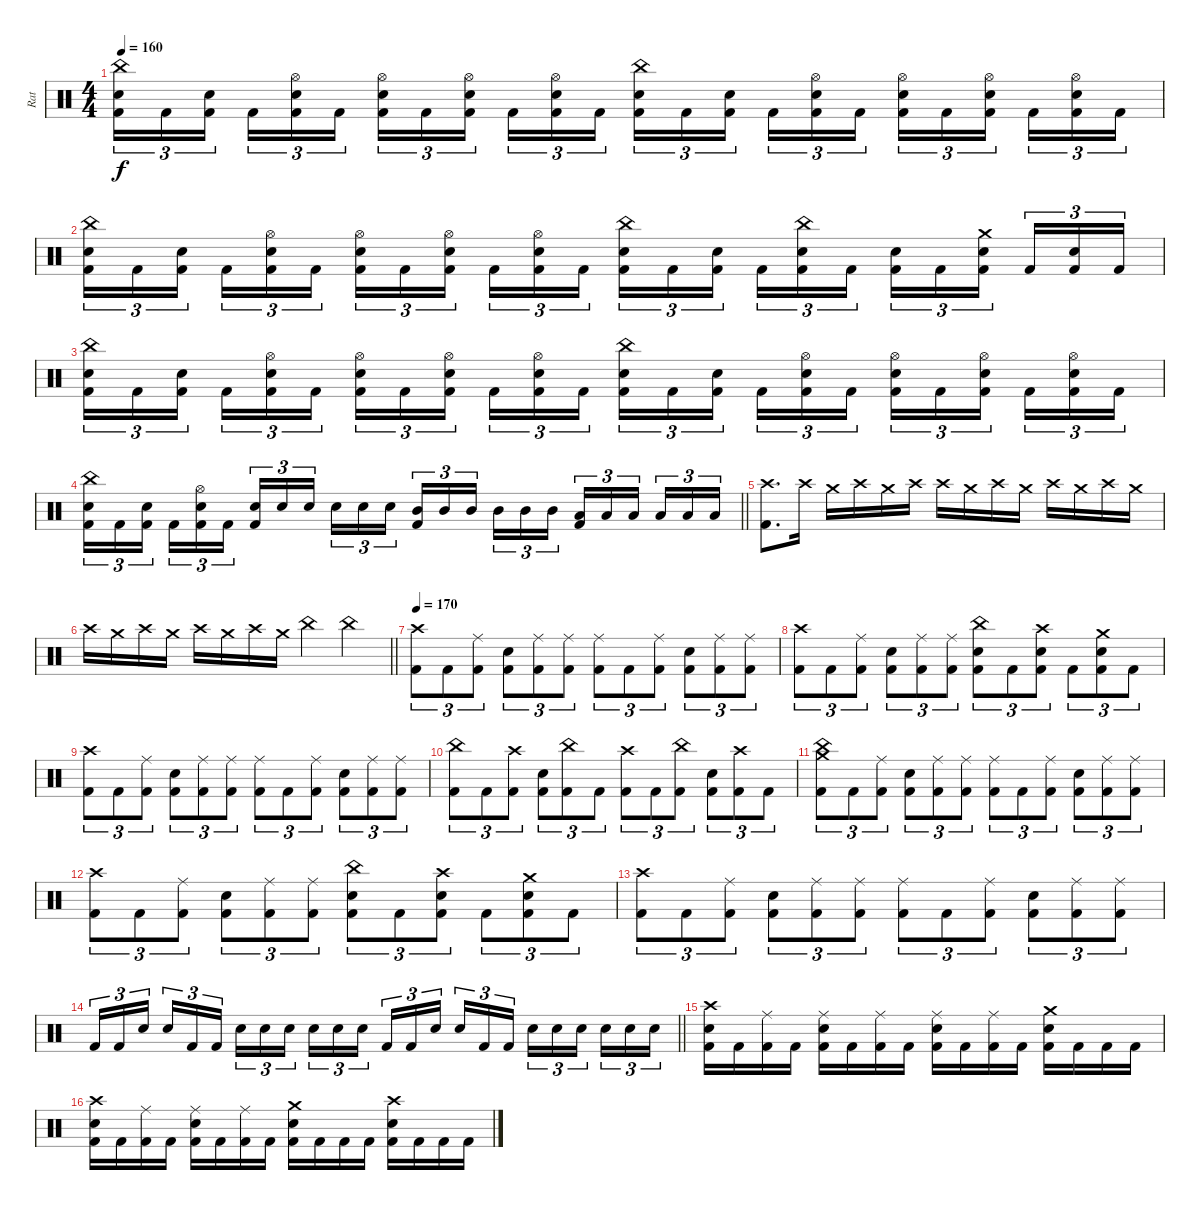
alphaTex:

\track ("Rat" "Rat") {instrument percussion}
\staff {score}
\articulation defaults
\ts (4 4)
\tempo 160
\clef neutral
\ks c
("China (hit)" "Electric Snare (hit)" "Kick (hit) 2").16{tu (3 2) dy f} "Kick (hit) 2".16{tu (3 2)} ("Electric Snare (hit)" "Kick (hit) 2").16{tu (3 2) beam splitsecondary} "Kick (hit) 2".16{tu (3 2)} ("Hi-Hat (open)" "Electric Snare (hit)" "Kick (hit) 2").16{tu (3 2)} "Kick (hit) 2".16{tu (3 2)} ("Hi-Hat (open)" "Electric Snare (hit)" "Kick (hit) 2").16{tu (3 2)} "Kick (hit) 2".16{tu (3 2)} ("Hi-Hat (open)" "Electric Snare (hit)" "Kick (hit) 2").16{tu (3 2) beam splitsecondary} "Kick (hit) 2".16{tu (3 2)} ("Hi-Hat (open)" "Electric Snare (hit)" "Kick (hit) 2").16{tu (3 2)} "Kick (hit) 2".16{tu (3 2)} ("China (hit)" "Electric Snare (hit)" "Kick (hit) 2").16{tu (3 2)} "Kick (hit) 2".16{tu (3 2)} ("Electric Snare (hit)" "Kick (hit) 2").16{tu (3 2) beam splitsecondary} "Kick (hit) 2".16{tu (3 2)} ("Hi-Hat (open)" "Electric Snare (hit)" "Kick (hit) 2").16{tu (3 2)} "Kick (hit) 2".16{tu (3 2)} ("Hi-Hat (open)" "Electric Snare (hit)" "Kick (hit) 2").16{tu (3 2)} "Kick (hit) 2".16{tu (3 2)} ("Hi-Hat (open)" "Electric Snare (hit)" "Kick (hit) 2").16{tu (3 2) beam splitsecondary} "Kick (hit) 2".16{tu (3 2)} ("Hi-Hat (open)" "Electric Snare (hit)" "Kick (hit) 2").16{tu (3 2)} "Kick (hit) 2".16{tu (3 2)} |
("China (hit)" "Electric Snare (hit)" "Kick (hit) 2").16{tu (3 2)} "Kick (hit) 2".16{tu (3 2)} ("Electric Snare (hit)" "Kick (hit) 2").16{tu (3 2) beam splitsecondary} "Kick (hit) 2".16{tu (3 2)} ("Hi-Hat (open)" "Electric Snare (hit)" "Kick (hit) 2").16{tu (3 2)} "Kick (hit) 2".16{tu (3 2)} ("Hi-Hat (open)" "Electric Snare (hit)" "Kick (hit) 2").16{tu (3 2)} "Kick (hit) 2".16{tu (3 2)} ("Hi-Hat (open)" "Electric Snare (hit)" "Kick (hit) 2").16{tu (3 2) beam splitsecondary} "Kick (hit) 2".16{tu (3 2)} ("Hi-Hat (open)" "Electric Snare (hit)" "Kick (hit) 2").16{tu (3 2)} "Kick (hit) 2".16{tu (3 2)} ("China (hit)" "Electric Snare (hit)" "Kick (hit) 2").16{tu (3 2)} "Kick (hit) 2".16{tu (3 2)} ("Electric Snare (hit)" "Kick (hit) 2").16{tu (3 2) beam splitsecondary} "Kick (hit) 2".16{tu (3 2)} ("China (hit)" "Electric Snare (hit)" "Kick (hit) 2").16{tu (3 2)} "Kick (hit) 2".16{tu (3 2)} ("Electric Snare (hit)" "Kick (hit) 2").16{tu (3 2)} "Kick (hit) 2".16{tu (3 2)} ("Crash medium (hit)" "Electric Snare (hit)" "Kick (hit) 2").16{tu (3 2) beam splitsecondary} "Kick (hit) 2".16{tu (3 2)} ("Electric Snare (hit)" "Kick (hit) 2").16{tu (3 2)} "Kick (hit) 2".16{tu (3 2)} |
("China (hit)" "Electric Snare (hit)" "Kick (hit) 2").16{tu (3 2)} "Kick (hit) 2".16{tu (3 2)} ("Electric Snare (hit)" "Kick (hit) 2").16{tu (3 2) beam splitsecondary} "Kick (hit) 2".16{tu (3 2)} ("Hi-Hat (open)" "Electric Snare (hit)" "Kick (hit) 2").16{tu (3 2)} "Kick (hit) 2".16{tu (3 2)} ("Hi-Hat (open)" "Electric Snare (hit)" "Kick (hit) 2").16{tu (3 2)} "Kick (hit) 2".16{tu (3 2)} ("Hi-Hat (open)" "Electric Snare (hit)" "Kick (hit) 2").16{tu (3 2) beam splitsecondary} "Kick (hit) 2".16{tu (3 2)} ("Hi-Hat (open)" "Electric Snare (hit)" "Kick (hit) 2").16{tu (3 2)} "Kick (hit) 2".16{tu (3 2)} ("China (hit)" "Electric Snare (hit)" "Kick (hit) 2").16{tu (3 2)} "Kick (hit) 2".16{tu (3 2)} ("Electric Snare (hit)" "Kick (hit) 2").16{tu (3 2) beam splitsecondary} "Kick (hit) 2".16{tu (3 2)} ("Hi-Hat (open)" "Electric Snare (hit)" "Kick (hit) 2").16{tu (3 2)} "Kick (hit) 2".16{tu (3 2)} ("Hi-Hat (open)" "Electric Snare (hit)" "Kick (hit) 2").16{tu (3 2)} "Kick (hit) 2".16{tu (3 2)} ("Hi-Hat (open)" "Electric Snare (hit)" "Kick (hit) 2").16{tu (3 2) beam splitsecondary} "Kick (hit) 2".16{tu (3 2)} ("Hi-Hat (open)" "Electric Snare (hit)" "Kick (hit) 2").16{tu (3 2)} "Kick (hit) 2".16{tu (3 2)} |
\barLineRight lightlight
("China (hit)" "Electric Snare (hit)" "Kick (hit) 2").16{tu (3 2)} "Kick (hit) 2".16{tu (3 2)} ("Electric Snare (hit)" "Kick (hit) 2").16{tu (3 2) beam splitsecondary} "Kick (hit) 2".16{tu (3 2)} ("Hi-Hat (open)" "Electric Snare (hit)" "Kick (hit) 2").16{tu (3 2)} "Kick (hit) 2".16{tu (3 2)} ("Electric Snare (hit)" "Kick (hit) 2").16{tu (3 2)} "Electric Snare (hit)".16{tu (3 2)} "Electric Snare (hit)".16{tu (3 2) beam splitsecondary} "Electric Snare (hit)".16{tu (3 2)} "Electric Snare (hit)".16{tu (3 2)} "Electric Snare (hit)".16{tu (3 2)} ("Mid Tom (hit)" "Kick (hit) 2").16{tu (3 2)} "Mid Tom (hit)".16{tu (3 2)} "Mid Tom (hit)".16{tu (3 2) beam splitsecondary} "Mid Tom (hit)".16{tu (3 2)} "Mid Tom (hit)".16{tu (3 2)} "Mid Tom (hit)".16{tu (3 2)} ("Low Tom (hit)" "Kick (hit) 2").16{tu (3 2)} "Low Tom (hit)".16{tu (3 2)} "Low Tom (hit)".16{tu (3 2) beam splitsecondary} "Low Tom (hit)".16{tu (3 2)} "Low Tom (hit)".16{tu (3 2)} "Low Tom (hit)".16{tu (3 2)} |
("Crash high (hit)" "Kick (hit) 2").8{d} "Crash high (hit)".16 "Crash medium (hit)".16 "Crash high (hit)".16 "Crash medium (hit)".16 "Crash high (hit)".16 "Crash high (hit)".16 "Crash medium (hit)".16 "Crash high (hit)".16 "Crash medium (hit)".16 "Crash high (hit)".16 "Crash medium (hit)".16 "Crash high (hit)".16 "Crash medium (hit)".16 |
\barLineRight lightlight "Crash high (hit)".16 "Crash medium (hit)".16 "Crash high (hit)".16 "Crash medium (hit)".16 "Crash high (hit)".16 "Crash medium (hit)".16 "Crash high (hit)".16 "Crash medium (hit)".16 "China (hit)".4 "China (hit)".4
|
\tempo 170
("Crash high (hit)" "Kick (hit) 2").8{tu (3 2)} "Kick (hit) 2".8{tu (3 2)} ("Ride (middle)" "Kick (hit) 2").8{tu (3 2)} ("Electric Snare (hit)" "Kick (hit) 2").8{tu (3 2)} ("Ride (middle)" "Kick (hit) 2").8{tu (3 2)} ("Ride (middle)" "Kick (hit) 2").8{tu (3 2)} ("Ride (middle)" "Kick (hit) 2").8{tu (3 2)} "Kick (hit) 2".8{tu (3 2)} ("Ride (middle)" "Kick (hit) 2").8{tu (3 2)} ("Electric Snare (hit)" "Kick (hit) 2").8{tu (3 2)} ("Ride (middle)" "Kick (hit) 2").8{tu (3 2)} ("Ride (middle)" "Kick (hit) 2").8{tu (3 2)} |
("Crash high (hit)" "Kick (hit) 2").8{tu (3 2)} "Kick (hit) 2".8{tu (3 2)} ("Ride (middle)" "Kick (hit) 2").8{tu (3 2)} ("Electric Snare (hit)" "Kick (hit) 2").8{tu (3 2)} ("Ride (middle)" "Kick (hit) 2").8{tu (3 2)} ("Ride (middle)" "Kick (hit) 2").8{tu (3 2)} ("China (hit)" "Electric Snare (hit)" "Kick (hit) 2").8{tu (3 2)} "Kick (hit) 2".8{tu (3 2)} ("Crash high (hit)" "Electric Snare (hit)" "Kick (hit) 2").8{tu (3 2)} "Kick (hit) 2".8{tu (3 2)} ("Crash medium (hit)" "Electric Snare (hit)" "Kick (hit) 2").8{tu (3 2)} "Kick (hit) 2".8{tu (3 2)} |
("Crash high (hit)" "Kick (hit) 2").8{tu (3 2)} "Kick (hit) 2".8{tu (3 2)} ("Ride (middle)" "Kick (hit) 2").8{tu (3 2)} ("Electric Snare (hit)" "Kick (hit) 2").8{tu (3 2)} ("Ride (middle)" "Kick (hit) 2").8{tu (3 2)} ("Ride (middle)" "Kick (hit) 2").8{tu (3 2)} ("Ride (middle)" "Kick (hit) 2").8{tu (3 2)} "Kick (hit) 2".8{tu (3 2)} ("Ride (middle)" "Kick (hit) 2").8{tu (3 2)} ("Electric Snare (hit)" "Kick (hit) 2").8{tu (3 2)} ("Ride (middle)" "Kick (hit) 2").8{tu (3 2)} ("Ride (middle)" "Kick (hit) 2").8{tu (3 2)} |
("China (hit)" "Kick (hit) 2").8{tu (3 2)} "Kick (hit) 2".8{tu (3 2)} ("Crash high (hit)" "Kick (hit) 2").8{tu (3 2)} ("Electric Snare (hit)" "Kick (hit) 2").8{tu (3 2)} ("China (hit)" "Kick (hit) 2").8{tu (3 2)} "Kick (hit) 2".8{tu (3 2)} ("Crash high (hit)" "Kick (hit) 2").8{tu (3 2)} "Kick (hit) 2".8{tu (3 2)} ("China (hit)" "Kick (hit) 2").8{tu (3 2)} ("Electric Snare (hit)" "Kick (hit) 2").8{tu (3 2)} ("Crash high (hit)" "Kick (hit) 2").8{tu (3 2)} "Kick (hit) 2".8{tu (3 2)} |
("China (hit)" "Crash medium (hit)" "Kick (hit) 2").8{tu (3 2)} "Kick (hit) 2".8{tu (3 2)} ("Ride (middle)" "Kick (hit) 2").8{tu (3 2)} ("Electric Snare (hit)" "Kick (hit) 2").8{tu (3 2)} ("Ride (middle)" "Kick (hit) 2").8{tu (3 2)} ("Ride (middle)" "Kick (hit) 2").8{tu (3 2)} ("Ride (middle)" "Kick (hit) 2").8{tu (3 2)} "Kick (hit) 2".8{tu (3 2)} ("Ride (middle)" "Kick (hit) 2").8{tu (3 2)} ("Electric Snare (hit)" "Kick (hit) 2").8{tu (3 2)} ("Ride (middle)" "Kick (hit) 2").8{tu (3 2)} ("Ride (middle)" "Kick (hit) 2").8{tu (3 2)} |
("Crash high (hit)" "Kick (hit) 2").8{tu (3 2)} "Kick (hit) 2".8{tu (3 2)} ("Ride (middle)" "Kick (hit) 2").8{tu (3 2)} ("Electric Snare (hit)" "Kick (hit) 2").8{tu (3 2)} ("Ride (middle)" "Kick (hit) 2").8{tu (3 2)} ("Ride (middle)" "Kick (hit) 2").8{tu (3 2)} ("China (hit)" "Electric Snare (hit)" "Kick (hit) 2").8{tu (3 2)} "Kick (hit) 2".8{tu (3 2)} ("Crash high (hit)" "Electric Snare (hit)" "Kick (hit) 2").8{tu (3 2)} "Kick (hit) 2".8{tu (3 2)} ("Crash medium (hit)" "Electric Snare (hit)" "Kick (hit) 2").8{tu (3 2)} "Kick (hit) 2".8{tu (3 2)} |
("Crash high (hit)" "Kick (hit) 2").8{tu (3 2)} "Kick (hit) 2".8{tu (3 2)} ("Ride (middle)" "Kick (hit) 2").8{tu (3 2)} ("Electric Snare (hit)" "Kick (hit) 2").8{tu (3 2)} ("Ride (middle)" "Kick (hit) 2").8{tu (3 2)} ("Ride (middle)" "Kick (hit) 2").8{tu (3 2)} ("Ride (middle)" "Kick (hit) 2").8{tu (3 2)} "Kick (hit) 2".8{tu (3 2)} ("Ride (middle)" "Kick (hit) 2").8{tu (3 2)} ("Electric Snare (hit)" "Kick (hit) 2").8{tu (3 2)} ("Ride (middle)" "Kick (hit) 2").8{tu (3 2)} ("Ride (middle)" "Kick (hit) 2").8{tu (3 2)} |
\barLineRight lightlight "Kick (hit) 2".16{tu (3 2)} "Kick (hit) 2".16{tu (3 2)} "Electric Snare (hit)".16{tu (3 2) beam splitsecondary} "Electric Snare (hit)".16{tu (3 2)} "Kick (hit) 2".16{tu (3 2)} "Kick (hit) 2".16{tu (3 2)} "Electric Snare (hit)".16{tu (3 2)} "Electric Snare (hit)".16{tu (3 2)} "Electric Snare (hit)".16{tu (3 2) beam splitsecondary} "Electric Snare (hit)".16{tu (3 2)} "Electric Snare (hit)".16{tu (3 2)} "Electric Snare (hit)".16{tu (3 2)} "Kick (hit) 2".16{tu (3 2)} "Kick (hit) 2".16{tu (3 2)} "Electric Snare (hit)".16{tu (3 2) beam splitsecondary} "Electric Snare (hit)".16{tu (3 2)} "Kick (hit) 2".16{tu (3 2)} "Kick (hit) 2".16{tu (3 2)} "Electric Snare (hit)".16{tu (3 2)} "Electric Snare (hit)".16{tu (3 2)} "Electric Snare (hit)".16{tu (3 2) beam splitsecondary} "Electric Snare (hit)".16{tu (3 2)} "Electric Snare (hit)".16{tu (3 2)} "Electric Snare (hit)".16{tu (3 2)}
|
("Crash high (hit)" "Electric Snare (hit)" "Kick (hit) 2").16 "Kick (hit) 2".16 ("Ride (middle)" "Kick (hit) 2").16 "Kick (hit) 2".16 ("Ride (middle)" "Electric Snare (hit)" "Kick (hit) 2").16 "Kick (hit) 2".16 ("Ride (middle)" "Kick (hit) 2").16 "Kick (hit) 2".16 ("Ride (middle)" "Electric Snare (hit)" "Kick (hit) 2").16 "Kick (hit) 2".16 ("Ride (middle)" "Kick (hit) 2").16 "Kick (hit) 2".16 ("Crash medium (hit)" "Electric Snare (hit)" "Kick (hit) 2").16 "Kick (hit) 2".16 "Kick (hit) 2".16 "Kick (hit) 2".16 |
("Crash high (hit)" "Electric Snare (hit)" "Kick (hit) 2").16 "Kick (hit) 2".16 ("Ride (middle)" "Kick (hit) 2").16 "Kick (hit) 2".16 ("Ride (middle)" "Electric Snare (hit)" "Kick (hit) 2").16 "Kick (hit) 2".16 ("Ride (middle)" "Kick (hit) 2").16 "Kick (hit) 2".16 ("Crash medium (hit)" "Electric Snare (hit)" "Kick (hit) 2").16 "Kick (hit) 2".16 "Kick (hit) 2".16 "Kick (hit) 2".16 ("Crash high (hit)" "Electric Snare (hit)" "Kick (hit) 2").16 "Kick (hit) 2".16 "Kick (hit) 2".16 "Kick (hit) 2".16
